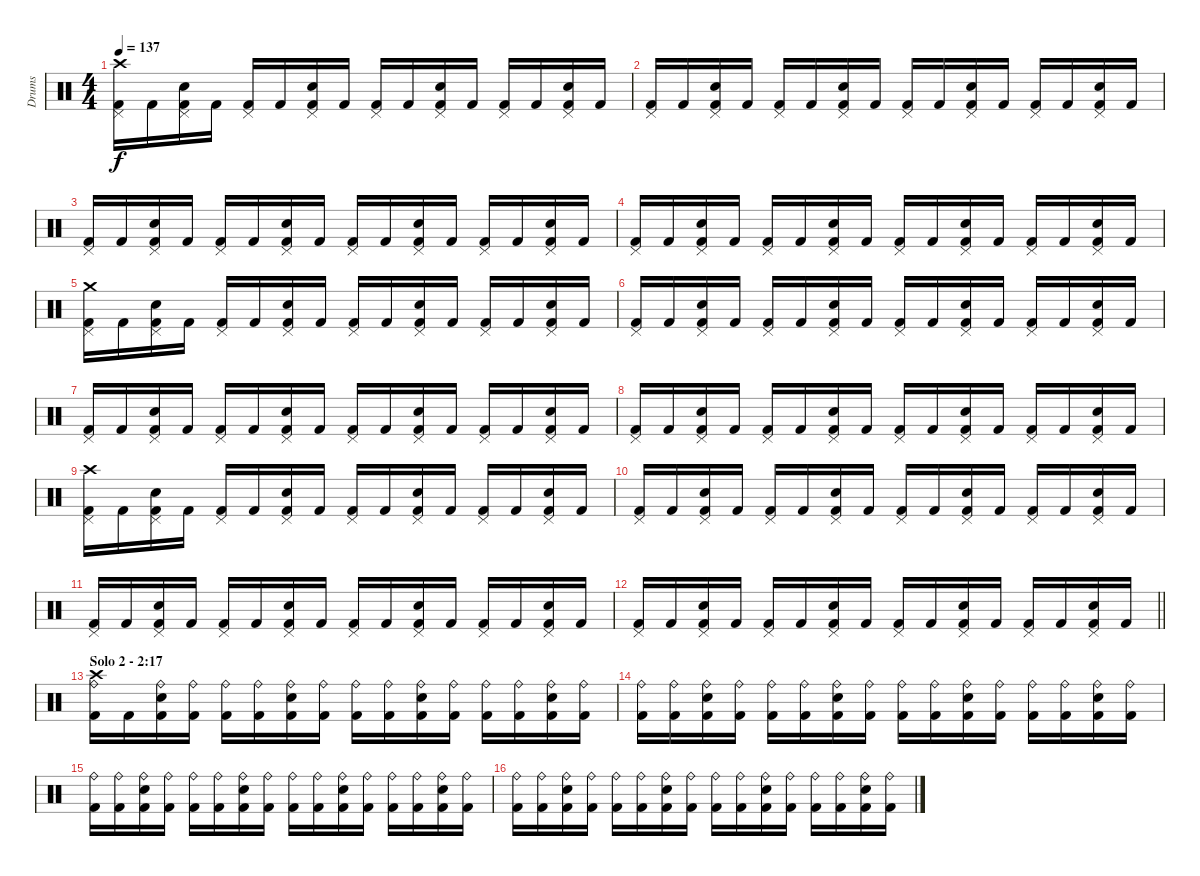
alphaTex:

\track ("Drums" "Drums") {instrument percussion}
\staff
\articulation defaults
\ts (4 4)
\tempo 137
\clef neutral
\ks c
("Crash high (hit)" "Pedal Hi-Hat (hit)" "Kick (hit) 2").16{dy f} "Kick (hit) 2".16 ("Pedal Hi-Hat (hit)" "Snare (hit) 2" "Kick (hit) 2").16 "Kick (hit) 2".16 ("Pedal Hi-Hat (hit)" "Kick (hit) 2").16 "Kick (hit) 2".16 ("Pedal Hi-Hat (hit)" "Snare (hit) 2" "Kick (hit) 2").16 "Kick (hit) 2".16 ("Pedal Hi-Hat (hit)" "Kick (hit) 2").16 "Kick (hit) 2".16 ("Pedal Hi-Hat (hit)" "Snare (hit) 2" "Kick (hit) 2").16 "Kick (hit) 2".16 ("Pedal Hi-Hat (hit)" "Kick (hit) 2").16 "Kick (hit) 2".16 ("Pedal Hi-Hat (hit)" "Snare (hit) 2" "Kick (hit) 2").16 "Kick (hit) 2".16 |
("Pedal Hi-Hat (hit)" "Kick (hit) 2").16 "Kick (hit) 2".16 ("Pedal Hi-Hat (hit)" "Snare (hit) 2" "Kick (hit) 2").16 "Kick (hit) 2".16 ("Pedal Hi-Hat (hit)" "Kick (hit) 2").16 "Kick (hit) 2".16 ("Pedal Hi-Hat (hit)" "Snare (hit) 2" "Kick (hit) 2").16 "Kick (hit) 2".16 ("Pedal Hi-Hat (hit)" "Kick (hit) 2").16 "Kick (hit) 2".16 ("Pedal Hi-Hat (hit)" "Snare (hit) 2" "Kick (hit) 2").16 "Kick (hit) 2".16 ("Pedal Hi-Hat (hit)" "Kick (hit) 2").16 "Kick (hit) 2".16 ("Pedal Hi-Hat (hit)" "Snare (hit) 2" "Kick (hit) 2").16 "Kick (hit) 2".16 |
("Pedal Hi-Hat (hit)" "Kick (hit) 2").16 "Kick (hit) 2".16 ("Pedal Hi-Hat (hit)" "Snare (hit) 2" "Kick (hit) 2").16 "Kick (hit) 2".16 ("Pedal Hi-Hat (hit)" "Kick (hit) 2").16 "Kick (hit) 2".16 ("Pedal Hi-Hat (hit)" "Snare (hit) 2" "Kick (hit) 2").16 "Kick (hit) 2".16 ("Pedal Hi-Hat (hit)" "Kick (hit) 2").16 "Kick (hit) 2".16 ("Pedal Hi-Hat (hit)" "Snare (hit) 2" "Kick (hit) 2").16 "Kick (hit) 2".16 ("Pedal Hi-Hat (hit)" "Kick (hit) 2").16 "Kick (hit) 2".16 ("Pedal Hi-Hat (hit)" "Snare (hit) 2" "Kick (hit) 2").16 "Kick (hit) 2".16 |
("Pedal Hi-Hat (hit)" "Kick (hit) 2").16 "Kick (hit) 2".16 ("Pedal Hi-Hat (hit)" "Snare (hit) 2" "Kick (hit) 2").16 "Kick (hit) 2".16 ("Pedal Hi-Hat (hit)" "Kick (hit) 2").16 "Kick (hit) 2".16 ("Pedal Hi-Hat (hit)" "Snare (hit) 2" "Kick (hit) 2").16 "Kick (hit) 2".16 ("Pedal Hi-Hat (hit)" "Kick (hit) 2").16 "Kick (hit) 2".16 ("Pedal Hi-Hat (hit)" "Snare (hit) 2" "Kick (hit) 2").16 "Kick (hit) 2".16 ("Pedal Hi-Hat (hit)" "Kick (hit) 2").16 "Kick (hit) 2".16 ("Pedal Hi-Hat (hit)" "Snare (hit) 2" "Kick (hit) 2").16 "Kick (hit) 2".16 |
("Crash medium (hit)" "Pedal Hi-Hat (hit)" "Kick (hit) 2").16 "Kick (hit) 2".16 ("Pedal Hi-Hat (hit)" "Snare (hit) 2" "Kick (hit) 2").16 "Kick (hit) 2".16 ("Pedal Hi-Hat (hit)" "Kick (hit) 2").16 "Kick (hit) 2".16 ("Pedal Hi-Hat (hit)" "Snare (hit) 2" "Kick (hit) 2").16 "Kick (hit) 2".16 ("Pedal Hi-Hat (hit)" "Kick (hit) 2").16 "Kick (hit) 2".16 ("Pedal Hi-Hat (hit)" "Snare (hit) 2" "Kick (hit) 2").16 "Kick (hit) 2".16 ("Pedal Hi-Hat (hit)" "Kick (hit) 2").16 "Kick (hit) 2".16 ("Pedal Hi-Hat (hit)" "Snare (hit) 2" "Kick (hit) 2").16 "Kick (hit) 2".16 |
("Pedal Hi-Hat (hit)" "Kick (hit) 2").16 "Kick (hit) 2".16 ("Pedal Hi-Hat (hit)" "Snare (hit) 2" "Kick (hit) 2").16 "Kick (hit) 2".16 ("Pedal Hi-Hat (hit)" "Kick (hit) 2").16 "Kick (hit) 2".16 ("Pedal Hi-Hat (hit)" "Snare (hit) 2" "Kick (hit) 2").16 "Kick (hit) 2".16 ("Pedal Hi-Hat (hit)" "Kick (hit) 2").16 "Kick (hit) 2".16 ("Pedal Hi-Hat (hit)" "Snare (hit) 2" "Kick (hit) 2").16 "Kick (hit) 2".16 ("Pedal Hi-Hat (hit)" "Kick (hit) 2").16 "Kick (hit) 2".16 ("Pedal Hi-Hat (hit)" "Snare (hit) 2" "Kick (hit) 2").16 "Kick (hit) 2".16 |
("Pedal Hi-Hat (hit)" "Kick (hit) 2").16 "Kick (hit) 2".16 ("Pedal Hi-Hat (hit)" "Snare (hit) 2" "Kick (hit) 2").16 "Kick (hit) 2".16 ("Pedal Hi-Hat (hit)" "Kick (hit) 2").16 "Kick (hit) 2".16 ("Pedal Hi-Hat (hit)" "Snare (hit) 2" "Kick (hit) 2").16 "Kick (hit) 2".16 ("Pedal Hi-Hat (hit)" "Kick (hit) 2").16 "Kick (hit) 2".16 ("Pedal Hi-Hat (hit)" "Snare (hit) 2" "Kick (hit) 2").16 "Kick (hit) 2".16 ("Pedal Hi-Hat (hit)" "Kick (hit) 2").16 "Kick (hit) 2".16 ("Pedal Hi-Hat (hit)" "Snare (hit) 2" "Kick (hit) 2").16 "Kick (hit) 2".16 |
("Pedal Hi-Hat (hit)" "Kick (hit) 2").16 "Kick (hit) 2".16 ("Pedal Hi-Hat (hit)" "Snare (hit) 2" "Kick (hit) 2").16 "Kick (hit) 2".16 ("Pedal Hi-Hat (hit)" "Kick (hit) 2").16 "Kick (hit) 2".16 ("Pedal Hi-Hat (hit)" "Snare (hit) 2" "Kick (hit) 2").16 "Kick (hit) 2".16 ("Pedal Hi-Hat (hit)" "Kick (hit) 2").16 "Kick (hit) 2".16 ("Pedal Hi-Hat (hit)" "Snare (hit) 2" "Kick (hit) 2").16 "Kick (hit) 2".16 ("Pedal Hi-Hat (hit)" "Kick (hit) 2").16 "Kick (hit) 2".16 ("Pedal Hi-Hat (hit)" "Snare (hit) 2" "Kick (hit) 2").16 "Kick (hit) 2".16 |
("Crash high (hit)" "Pedal Hi-Hat (hit)" "Kick (hit) 2").16 "Kick (hit) 2".16 ("Pedal Hi-Hat (hit)" "Snare (hit) 2" "Kick (hit) 2").16 "Kick (hit) 2".16 ("Pedal Hi-Hat (hit)" "Kick (hit) 2").16 "Kick (hit) 2".16 ("Pedal Hi-Hat (hit)" "Snare (hit) 2" "Kick (hit) 2").16 "Kick (hit) 2".16 ("Pedal Hi-Hat (hit)" "Kick (hit) 2").16 "Kick (hit) 2".16 ("Pedal Hi-Hat (hit)" "Snare (hit) 2" "Kick (hit) 2").16 "Kick (hit) 2".16 ("Pedal Hi-Hat (hit)" "Kick (hit) 2").16 "Kick (hit) 2".16 ("Pedal Hi-Hat (hit)" "Snare (hit) 2" "Kick (hit) 2").16 "Kick (hit) 2".16 |
("Pedal Hi-Hat (hit)" "Kick (hit) 2").16 "Kick (hit) 2".16 ("Pedal Hi-Hat (hit)" "Snare (hit) 2" "Kick (hit) 2").16 "Kick (hit) 2".16 ("Pedal Hi-Hat (hit)" "Kick (hit) 2").16 "Kick (hit) 2".16 ("Pedal Hi-Hat (hit)" "Snare (hit) 2" "Kick (hit) 2").16 "Kick (hit) 2".16 ("Pedal Hi-Hat (hit)" "Kick (hit) 2").16 "Kick (hit) 2".16 ("Pedal Hi-Hat (hit)" "Snare (hit) 2" "Kick (hit) 2").16 "Kick (hit) 2".16 ("Pedal Hi-Hat (hit)" "Kick (hit) 2").16 "Kick (hit) 2".16 ("Pedal Hi-Hat (hit)" "Snare (hit) 2" "Kick (hit) 2").16 "Kick (hit) 2".16 |
("Pedal Hi-Hat (hit)" "Kick (hit) 2").16 "Kick (hit) 2".16 ("Pedal Hi-Hat (hit)" "Snare (hit) 2" "Kick (hit) 2").16 "Kick (hit) 2".16 ("Pedal Hi-Hat (hit)" "Kick (hit) 2").16 "Kick (hit) 2".16 ("Pedal Hi-Hat (hit)" "Snare (hit) 2" "Kick (hit) 2").16 "Kick (hit) 2".16 ("Pedal Hi-Hat (hit)" "Kick (hit) 2").16 "Kick (hit) 2".16 ("Pedal Hi-Hat (hit)" "Snare (hit) 2" "Kick (hit) 2").16 "Kick (hit) 2".16 ("Pedal Hi-Hat (hit)" "Kick (hit) 2").16 "Kick (hit) 2".16 ("Pedal Hi-Hat (hit)" "Snare (hit) 2" "Kick (hit) 2").16 "Kick (hit) 2".16 |
\barLineRight lightlight
("Pedal Hi-Hat (hit)" "Kick (hit) 2").16 "Kick (hit) 2".16 ("Pedal Hi-Hat (hit)" "Snare (hit) 2" "Kick (hit) 2").16 "Kick (hit) 2".16 ("Pedal Hi-Hat (hit)" "Kick (hit) 2").16 "Kick (hit) 2".16 ("Pedal Hi-Hat (hit)" "Snare (hit) 2" "Kick (hit) 2").16 "Kick (hit) 2".16 ("Pedal Hi-Hat (hit)" "Kick (hit) 2").16 "Kick (hit) 2".16 ("Pedal Hi-Hat (hit)" "Snare (hit) 2" "Kick (hit) 2").16 "Kick (hit) 2".16 ("Pedal Hi-Hat (hit)" "Kick (hit) 2").16 "Kick (hit) 2".16 ("Pedal Hi-Hat (hit)" "Snare (hit) 2" "Kick (hit) 2").16 "Kick (hit) 2".16 |
\section ("" "Solo 2 - 2:17")
("Crash high (hit)" "Ride (bell)" "Kick (hit) 2").16 "Kick (hit) 2".16 ("Ride (bell)" "Snare (hit) 2" "Kick (hit) 2").16 ("Ride (bell)" "Kick (hit) 2").16 ("Ride (bell)" "Kick (hit) 2").16 ("Ride (bell)" "Kick (hit) 2").16 ("Ride (bell)" "Snare (hit) 2" "Kick (hit) 2").16 ("Ride (bell)" "Kick (hit) 2").16 ("Ride (bell)" "Kick (hit) 2").16 ("Ride (bell)" "Kick (hit) 2").16 ("Ride (bell)" "Snare (hit) 2" "Kick (hit) 2").16 ("Ride (bell)" "Kick (hit) 2").16 ("Ride (bell)" "Kick (hit) 2").16 ("Ride (bell)" "Kick (hit) 2").16 ("Ride (bell)" "Snare (hit) 2" "Kick (hit) 2").16 ("Ride (bell)" "Kick (hit) 2").16 |
("Ride (bell)" "Kick (hit) 2").16 ("Ride (bell)" "Kick (hit) 2").16 ("Ride (bell)" "Snare (hit) 2" "Kick (hit) 2").16 ("Ride (bell)" "Kick (hit) 2").16 ("Ride (bell)" "Kick (hit) 2").16 ("Ride (bell)" "Kick (hit) 2").16 ("Ride (bell)" "Snare (hit) 2" "Kick (hit) 2").16 ("Ride (bell)" "Kick (hit) 2").16 ("Ride (bell)" "Kick (hit) 2").16 ("Ride (bell)" "Kick (hit) 2").16 ("Ride (bell)" "Snare (hit) 2" "Kick (hit) 2").16 ("Ride (bell)" "Kick (hit) 2").16 ("Ride (bell)" "Kick (hit) 2").16 ("Ride (bell)" "Kick (hit) 2").16 ("Ride (bell)" "Snare (hit) 2" "Kick (hit) 2").16 ("Ride (bell)" "Kick (hit) 2").16 |
("Ride (bell)" "Kick (hit) 2").16 ("Ride (bell)" "Kick (hit) 2").16 ("Ride (bell)" "Snare (hit) 2" "Kick (hit) 2").16 ("Ride (bell)" "Kick (hit) 2").16 ("Ride (bell)" "Kick (hit) 2").16 ("Ride (bell)" "Kick (hit) 2").16 ("Ride (bell)" "Snare (hit) 2" "Kick (hit) 2").16 ("Ride (bell)" "Kick (hit) 2").16 ("Ride (bell)" "Kick (hit) 2").16 ("Ride (bell)" "Kick (hit) 2").16 ("Ride (bell)" "Snare (hit) 2" "Kick (hit) 2").16 ("Ride (bell)" "Kick (hit) 2").16 ("Ride (bell)" "Kick (hit) 2").16 ("Ride (bell)" "Kick (hit) 2").16 ("Ride (bell)" "Snare (hit) 2" "Kick (hit) 2").16 ("Ride (bell)" "Kick (hit) 2").16 |
("Ride (bell)" "Kick (hit) 2").16 ("Ride (bell)" "Kick (hit) 2").16 ("Ride (bell)" "Snare (hit) 2" "Kick (hit) 2").16 ("Ride (bell)" "Kick (hit) 2").16 ("Ride (bell)" "Kick (hit) 2").16 ("Ride (bell)" "Kick (hit) 2").16 ("Ride (bell)" "Snare (hit) 2" "Kick (hit) 2").16 ("Ride (bell)" "Kick (hit) 2").16 ("Ride (bell)" "Kick (hit) 2").16 ("Ride (bell)" "Kick (hit) 2").16 ("Ride (bell)" "Snare (hit) 2" "Kick (hit) 2").16 ("Ride (bell)" "Kick (hit) 2").16 ("Ride (bell)" "Kick (hit) 2").16 ("Ride (bell)" "Kick (hit) 2").16 ("Ride (bell)" "Snare (hit) 2" "Kick (hit) 2").16 ("Ride (bell)" "Kick (hit) 2").16
